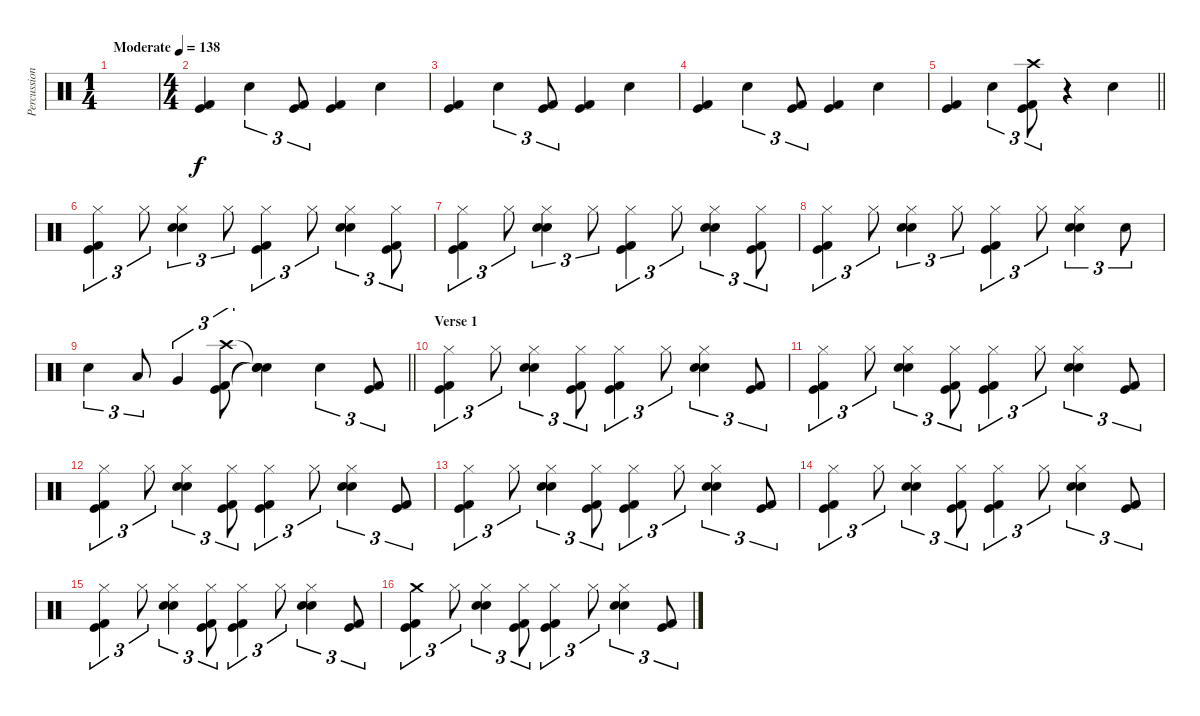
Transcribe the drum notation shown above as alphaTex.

\track ("Percussion" "Percussion") {instrument percussion}
\staff {score}
\articulation defaults
\ts (1 4)
\tempo (138 "Moderate")
\clef neutral
\ks c
|
\ts (4 4)
("Kick (hit)" "Kick (hit) 2").4 "Hand Clap (hit)".4{tu (3 2)} ("Kick (hit)" "Kick (hit) 2").8{tu (3 2)} ("Kick (hit)" "Kick (hit) 2").4 "Hand Clap (hit)".4 |
("Kick (hit)" "Kick (hit) 2").4 "Hand Clap (hit)".4{tu (3 2)} ("Kick (hit)" "Kick (hit) 2").8{tu (3 2)} ("Kick (hit)" "Kick (hit) 2").4 "Hand Clap (hit)".4 |
("Kick (hit)" "Kick (hit) 2").4 "Hand Clap (hit)".4{tu (3 2)} ("Kick (hit)" "Kick (hit) 2").8{tu (3 2)} ("Kick (hit)" "Kick (hit) 2").4 "Hand Clap (hit)".4 |
\barLineRight lightlight
("Kick (hit)" "Kick (hit) 2").4 "Hand Clap (hit)".4{tu (3 2)} ("Crash high (hit)" "Kick (hit)" "Kick (hit) 2").8{tu (3 2)} r.4 "Hand Clap (hit)".4 |
\section ("" "")
("Hi-Hat (closed)" "Kick (hit)" "Kick (hit) 2").4{tu (3 2)} "Hi-Hat (closed)".8{tu (3 2)} ("Hi-Hat (closed)" "Hand Clap (hit)" "Electric Snare (hit)").4{tu (3 2)} "Hi-Hat (closed)".8{tu (3 2)} ("Hi-Hat (closed)" "Kick (hit)" "Kick (hit) 2").4{tu (3 2)} "Hi-Hat (closed)".8{tu (3 2)} ("Hi-Hat (closed)" "Hand Clap (hit)" "Electric Snare (hit)").4{tu (3 2)} ("Hi-Hat (closed)" "Kick (hit)" "Kick (hit) 2").8{tu (3 2)} |
("Hi-Hat (closed)" "Kick (hit)" "Kick (hit) 2").4{tu (3 2)} "Hi-Hat (closed)".8{tu (3 2)} ("Hi-Hat (closed)" "Hand Clap (hit)" "Electric Snare (hit)").4{tu (3 2)} "Hi-Hat (closed)".8{tu (3 2)} ("Hi-Hat (closed)" "Kick (hit)" "Kick (hit) 2").4{tu (3 2)} "Hi-Hat (closed)".8{tu (3 2)} ("Hi-Hat (closed)" "Hand Clap (hit)" "Electric Snare (hit)").4{tu (3 2)} ("Hi-Hat (closed)" "Kick (hit)" "Kick (hit) 2").8{tu (3 2)} |
("Hi-Hat (closed)" "Kick (hit)" "Kick (hit) 2").4{tu (3 2)} "Hi-Hat (closed)".8{tu (3 2)} ("Hi-Hat (closed)" "Hand Clap (hit)" "Electric Snare (hit)").4{tu (3 2)} "Hi-Hat (closed)".8{tu (3 2)} ("Hi-Hat (closed)" "Kick (hit)" "Kick (hit) 2").4{tu (3 2)} "Hi-Hat (closed)".8{tu (3 2)} ("Hi-Hat (closed)" "Hand Clap (hit)" "Electric Snare (hit)").4{tu (3 2)} "Electric Snare (hit)".8{tu (3 2)} |
\barLineRight lightlight "Electric Snare (hit)".4{tu (3 2)} "Low Tom (hit)".8{tu (3 2)} "Very Low Tom (hit)".4{tu (3 2)}
("Crash high (hit)" "Kick (hit)" "Kick (hit) 2").8{tu (3 2)} ("Snare (hit)"{t} "Snare (hit)"{t} "Snare (hit)"{t}).4 "Hand Clap (hit)".4{tu (3 2)} ("Kick (hit)" "Kick (hit) 2").8{tu (3 2)} |
\section ("" "Verse 1")
("Hi-Hat (closed)" "Kick (hit)" "Kick (hit) 2").4{tu (3 2)} "Hi-Hat (closed)".8{tu (3 2)} ("Hi-Hat (closed)" "Hand Clap (hit)" "Electric Snare (hit)").4{tu (3 2)} ("Hi-Hat (closed)" "Kick (hit)" "Kick (hit) 2").8{tu (3 2)} ("Hi-Hat (closed)" "Kick (hit)" "Kick (hit) 2").4{tu (3 2)} "Hi-Hat (closed)".8{tu (3 2)} ("Hi-Hat (closed)" "Hand Clap (hit)" "Electric Snare (hit)").4{tu (3 2)} ("Kick (hit)" "Kick (hit) 2").8{tu (3 2)} |
("Hi-Hat (closed)" "Kick (hit)" "Kick (hit) 2").4{tu (3 2)} "Hi-Hat (closed)".8{tu (3 2)} ("Hi-Hat (closed)" "Hand Clap (hit)" "Electric Snare (hit)").4{tu (3 2)} ("Hi-Hat (closed)" "Kick (hit)" "Kick (hit) 2").8{tu (3 2)} ("Hi-Hat (closed)" "Kick (hit)" "Kick (hit) 2").4{tu (3 2)} "Hi-Hat (closed)".8{tu (3 2)} ("Hi-Hat (closed)" "Hand Clap (hit)" "Electric Snare (hit)").4{tu (3 2)} ("Kick (hit)" "Kick (hit) 2").8{tu (3 2)} |
("Hi-Hat (closed)" "Kick (hit)" "Kick (hit) 2").4{tu (3 2)} "Hi-Hat (closed)".8{tu (3 2)} ("Hi-Hat (closed)" "Hand Clap (hit)" "Electric Snare (hit)").4{tu (3 2)} ("Hi-Hat (closed)" "Kick (hit)" "Kick (hit) 2").8{tu (3 2)} ("Hi-Hat (closed)" "Kick (hit)" "Kick (hit) 2").4{tu (3 2)} "Hi-Hat (closed)".8{tu (3 2)} ("Hi-Hat (closed)" "Hand Clap (hit)" "Electric Snare (hit)").4{tu (3 2)} ("Kick (hit)" "Kick (hit) 2").8{tu (3 2)} |
("Hi-Hat (closed)" "Kick (hit)" "Kick (hit) 2").4{tu (3 2)} "Hi-Hat (closed)".8{tu (3 2)} ("Hi-Hat (closed)" "Hand Clap (hit)" "Electric Snare (hit)").4{tu (3 2)} ("Hi-Hat (closed)" "Kick (hit)" "Kick (hit) 2").8{tu (3 2)} ("Hi-Hat (closed)" "Kick (hit)" "Kick (hit) 2").4{tu (3 2)} "Hi-Hat (closed)".8{tu (3 2)} ("Hi-Hat (closed)" "Hand Clap (hit)" "Electric Snare (hit)").4{tu (3 2)} ("Kick (hit)" "Kick (hit) 2").8{tu (3 2)} |
("Hi-Hat (closed)" "Kick (hit)" "Kick (hit) 2").4{tu (3 2)} "Hi-Hat (closed)".8{tu (3 2)} ("Hi-Hat (closed)" "Hand Clap (hit)" "Electric Snare (hit)").4{tu (3 2)} ("Hi-Hat (closed)" "Kick (hit)" "Kick (hit) 2").8{tu (3 2)} ("Hi-Hat (closed)" "Kick (hit)" "Kick (hit) 2").4{tu (3 2)} "Hi-Hat (closed)".8{tu (3 2)} ("Hi-Hat (closed)" "Hand Clap (hit)" "Electric Snare (hit)").4{tu (3 2)} ("Kick (hit)" "Kick (hit) 2").8{tu (3 2)} |
("Hi-Hat (closed)" "Kick (hit)" "Kick (hit) 2").4{tu (3 2)} "Hi-Hat (closed)".8{tu (3 2)} ("Hi-Hat (closed)" "Hand Clap (hit)" "Electric Snare (hit)").4{tu (3 2)} ("Hi-Hat (closed)" "Kick (hit)" "Kick (hit) 2").8{tu (3 2)} ("Hi-Hat (closed)" "Kick (hit)" "Kick (hit) 2").4{tu (3 2)} "Hi-Hat (closed)".8{tu (3 2)} ("Hi-Hat (closed)" "Hand Clap (hit)" "Electric Snare (hit)").4{tu (3 2)} ("Kick (hit)" "Kick (hit) 2").8{tu (3 2)} |
("Crash medium (hit)" "Kick (hit)" "Kick (hit) 2").4{tu (3 2)} "Hi-Hat (closed)".8{tu (3 2)} ("Hi-Hat (closed)" "Hand Clap (hit)" "Electric Snare (hit)").4{tu (3 2)} ("Hi-Hat (closed)" "Kick (hit)" "Kick (hit) 2").8{tu (3 2)} ("Hi-Hat (closed)" "Kick (hit)" "Kick (hit) 2").4{tu (3 2)} "Hi-Hat (closed)".8{tu (3 2)} ("Hi-Hat (closed)" "Hand Clap (hit)" "Electric Snare (hit)").4{tu (3 2)} ("Kick (hit)" "Kick (hit) 2").8{tu (3 2)}
